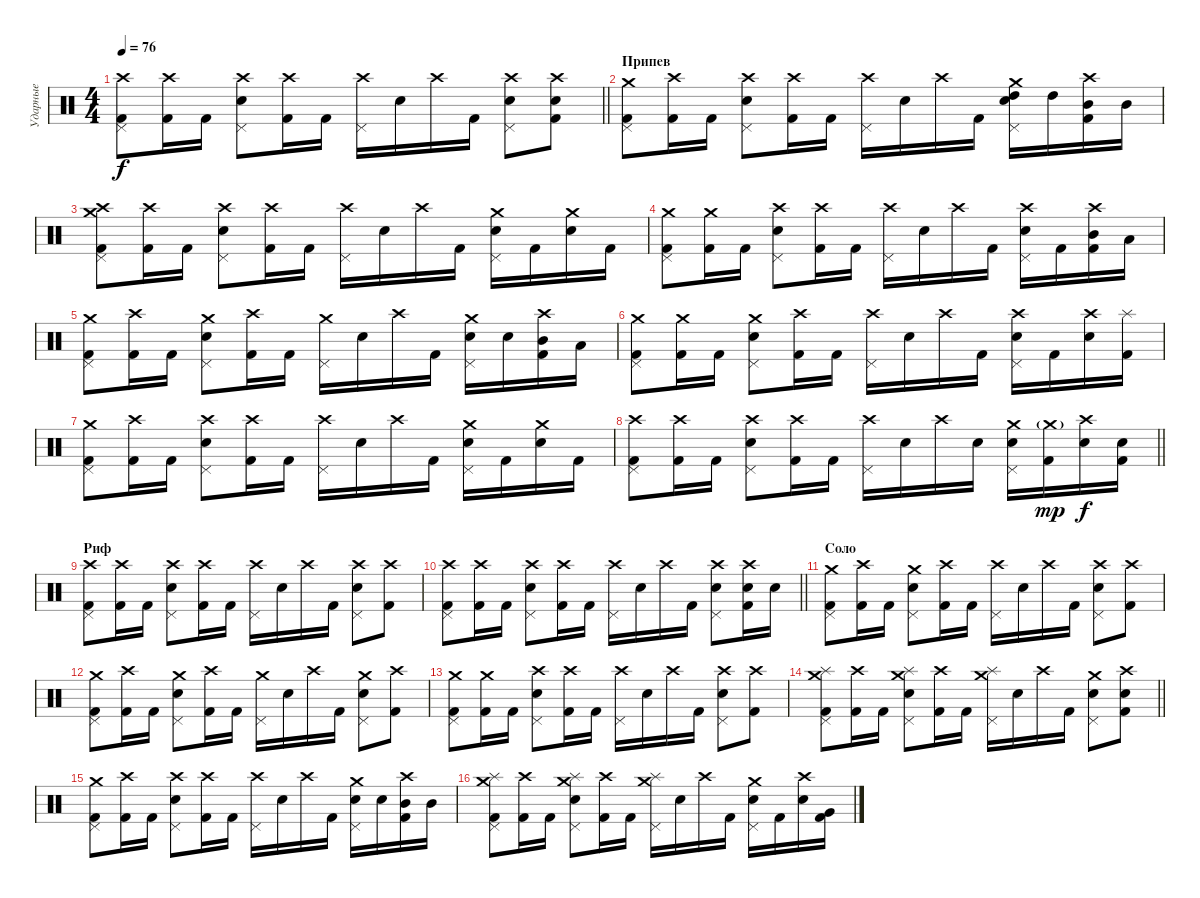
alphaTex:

\track ("Ударные" "Ударные") {instrument percussion}
\staff {score}
\articulation defaults
\ts (4 4)
\tempo 76
\clef neutral
\barLineRight lightlight
\ks c
("Crash high (hit)" "Pedal Hi-Hat (hit)" "Kick (hit) 2").8{dy f} ("Crash high (hit)" "Kick (hit) 2").16 "Kick (hit) 2".16 ("Crash high (hit)" "Pedal Hi-Hat (hit)" "Snare (hit) 2").8 ("Crash high (hit)" "Kick (hit) 2").16 "Kick (hit) 2".16 ("Crash high (hit)" "Pedal Hi-Hat (hit)").16 "Snare (hit) 2".16 "Crash high (hit)".16 "Kick (hit) 2".16 ("Crash high (hit)" "Pedal Hi-Hat (hit)" "Snare (hit) 2").8 ("Crash high (hit)" "Snare (hit) 2" "Kick (hit) 2").8 |
\section ("" "Припев")
("Crash medium (hit)" "Pedal Hi-Hat (hit)" "Kick (hit) 2").8 ("Crash high (hit)" "Kick (hit) 2").16 "Kick (hit) 2".16 ("Crash high (hit)" "Pedal Hi-Hat (hit)" "Snare (hit) 2").8 ("Crash high (hit)" "Kick (hit) 2").16 "Kick (hit) 2".16 ("Crash high (hit)" "Pedal Hi-Hat (hit)").16 "Snare (hit) 2".16 "Crash high (hit)".16 "Kick (hit) 2".16 ("High Tom (hit)" "Pedal Hi-Hat (hit)" "Crash medium (hit)" "Snare (hit) 2").16 "High Tom (hit)".16 ("Mid Tom (hit)" "Crash high (hit)" "Kick (hit) 2").16 "Mid Tom (hit)".16 |
("Crash high (hit)" "Pedal Hi-Hat (hit)" "Crash medium (hit)" "Kick (hit) 2").8 ("Crash high (hit)" "Kick (hit) 2").16 "Kick (hit) 2".16 ("Crash high (hit)" "Pedal Hi-Hat (hit)" "Snare (hit) 2").8 ("Crash high (hit)" "Kick (hit) 2").16 "Kick (hit) 2".16 ("Crash high (hit)" "Pedal Hi-Hat (hit)").16 "Snare (hit) 2".16 "Crash high (hit)".16 "Kick (hit) 2".16 ("Crash medium (hit)" "Pedal Hi-Hat (hit)" "Snare (hit) 2").16 "Kick (hit) 2".16 ("Crash medium (hit)" "Snare (hit) 2").16 "Kick (hit) 2".16 |
("Crash medium (hit)" "Pedal Hi-Hat (hit)" "Kick (hit) 2").8 ("Crash medium (hit)" "Kick (hit) 2").16 "Kick (hit) 2".16 ("Crash high (hit)" "Pedal Hi-Hat (hit)" "Snare (hit) 2").8 ("Crash high (hit)" "Kick (hit) 2").16 "Kick (hit) 2".16 ("Crash high (hit)" "Pedal Hi-Hat (hit)").16 "Snare (hit) 2".16 "Crash high (hit)".16 "Kick (hit) 2".16 ("Crash high (hit)" "Pedal Hi-Hat (hit)" "Snare (hit) 2").16 "Kick (hit) 2".16 ("Mid Tom (hit)" "Crash high (hit)" "Kick (hit) 2").16 "Low Tom (hit)".16 |
("Crash medium (hit)" "Pedal Hi-Hat (hit)" "Kick (hit) 2").8 ("Crash high (hit)" "Kick (hit) 2").16 "Kick (hit) 2".16 ("Crash medium (hit)" "Pedal Hi-Hat (hit)" "Snare (hit) 2").8 ("Crash high (hit)" "Kick (hit) 2").16 "Kick (hit) 2".16 ("Crash medium (hit)" "Pedal Hi-Hat (hit)").16 "Snare (hit) 2".16 "Crash high (hit)".16 "Kick (hit) 2".16 ("Crash medium (hit)" "Pedal Hi-Hat (hit)" "Snare (hit) 2").16 "Snare (hit) 2".16 ("Mid Tom (hit)" "Crash high (hit)" "Kick (hit) 2").16 "Low Tom (hit)".16 |
("Crash medium (hit)" "Pedal Hi-Hat (hit)" "Kick (hit) 2").8 ("Crash medium (hit)" "Kick (hit) 2").16 "Kick (hit) 2".16 ("Crash medium (hit)" "Pedal Hi-Hat (hit)" "Snare (hit) 2").8 ("Crash high (hit)" "Kick (hit) 2").16 "Kick (hit) 2".16 ("Crash high (hit)" "Pedal Hi-Hat (hit)").16 "Snare (hit) 2".16 "Crash high (hit)".16 "Kick (hit) 2".16 ("Crash high (hit)" "Pedal Hi-Hat (hit)" "Snare (hit) 2").16 "Kick (hit) 2".16 ("Crash high (hit)" "Snare (hit) 2").16 ("Splash (hit)" "Kick (hit) 2").16 |
("Crash medium (hit)" "Pedal Hi-Hat (hit)" "Kick (hit) 2").8 ("Crash high (hit)" "Kick (hit) 2").16 "Kick (hit) 2".16 ("Crash high (hit)" "Pedal Hi-Hat (hit)" "Snare (hit) 2").8 ("Crash high (hit)" "Kick (hit) 2").16 "Kick (hit) 2".16 ("Crash high (hit)" "Pedal Hi-Hat (hit)").16 "Snare (hit) 2".16 "Crash high (hit)".16 "Kick (hit) 2".16 ("Crash medium (hit)" "Pedal Hi-Hat (hit)" "Snare (hit) 2").16 "Kick (hit) 2".16 ("Crash medium (hit)" "Snare (hit) 2").16 "Kick (hit) 2".16 |
\barLineRight lightlight
("Crash high (hit)" "Pedal Hi-Hat (hit)" "Kick (hit) 2").8 ("Crash high (hit)" "Kick (hit) 2").16 "Kick (hit) 2".16 ("Crash high (hit)" "Pedal Hi-Hat (hit)" "Snare (hit) 2").8 ("Crash high (hit)" "Kick (hit) 2").16 "Kick (hit) 2".16 ("Crash high (hit)" "Pedal Hi-Hat (hit)").16 "Snare (hit) 2".16 "Crash high (hit)".16 "Snare (hit) 2".16 ("Crash medium (hit)" "Pedal Hi-Hat (hit)" "Snare (hit) 2").16 ("Crash medium (hit)"{g} "Kick (hit) 2").16{dy mp} ("Crash high (hit)" "Snare (hit) 2").16{dy f} ("Snare (hit) 2" "Kick (hit) 2").16 |
\section ("" "Риф")
("Crash high (hit)" "Pedal Hi-Hat (hit)" "Kick (hit) 2").8 ("Crash high (hit)" "Kick (hit) 2").16 "Kick (hit) 2".16 ("Crash high (hit)" "Pedal Hi-Hat (hit)" "Snare (hit) 2").8 ("Crash high (hit)" "Kick (hit) 2").16 "Kick (hit) 2".16 ("Crash high (hit)" "Pedal Hi-Hat (hit)").16 "Snare (hit) 2".16 "Crash high (hit)".16 "Kick (hit) 2".16 ("Crash high (hit)" "Pedal Hi-Hat (hit)" "Snare (hit) 2").8 ("Crash high (hit)" "Kick (hit) 2").8 |
\barLineRight lightlight
("Crash high (hit)" "Pedal Hi-Hat (hit)" "Kick (hit) 2").8 ("Crash high (hit)" "Kick (hit) 2").16 "Kick (hit) 2".16 ("Crash high (hit)" "Pedal Hi-Hat (hit)" "Snare (hit) 2").8 ("Crash high (hit)" "Kick (hit) 2").16 "Kick (hit) 2".16 ("Crash high (hit)" "Pedal Hi-Hat (hit)").16 "Snare (hit) 2".16 "Crash high (hit)".16 "Kick (hit) 2".16 ("Crash high (hit)" "Pedal Hi-Hat (hit)" "Snare (hit) 2").8 ("Crash high (hit)" "Snare (hit) 2" "Kick (hit) 2").16 "Snare (hit) 2".16 |
\section ("" "Соло")
("Crash medium (hit)" "Pedal Hi-Hat (hit)" "Kick (hit) 2").8 ("Crash high (hit)" "Kick (hit) 2").16 "Kick (hit) 2".16 ("Crash medium (hit)" "Pedal Hi-Hat (hit)" "Snare (hit) 2").8 ("Crash high (hit)" "Kick (hit) 2").16 "Kick (hit) 2".16 ("Crash high (hit)" "Pedal Hi-Hat (hit)").16 "Snare (hit) 2".16 "Crash high (hit)".16 "Kick (hit) 2".16 ("Crash high (hit)" "Pedal Hi-Hat (hit)" "Snare (hit) 2").8 ("Crash high (hit)" "Kick (hit) 2").8 |
("Crash medium (hit)" "Pedal Hi-Hat (hit)" "Kick (hit) 2").8 ("Crash high (hit)" "Kick (hit) 2").16 "Kick (hit) 2".16 ("Crash medium (hit)" "Pedal Hi-Hat (hit)" "Snare (hit) 2").8 ("Crash high (hit)" "Kick (hit) 2").16 "Kick (hit) 2".16 ("Crash medium (hit)" "Pedal Hi-Hat (hit)").16 "Snare (hit) 2".16 "Crash high (hit)".16 "Kick (hit) 2".16 ("Crash medium (hit)" "Pedal Hi-Hat (hit)" "Snare (hit) 2").8 ("Crash high (hit)" "Kick (hit) 2").8 |
("Crash medium (hit)" "Pedal Hi-Hat (hit)" "Kick (hit) 2").8 ("Crash medium (hit)" "Kick (hit) 2").16 "Kick (hit) 2".16 ("Crash high (hit)" "Pedal Hi-Hat (hit)" "Snare (hit) 2").8 ("Crash high (hit)" "Kick (hit) 2").16 "Kick (hit) 2".16 ("Crash high (hit)" "Pedal Hi-Hat (hit)").16 "Snare (hit) 2".16 "Crash high (hit)".16 "Kick (hit) 2".16 ("Crash high (hit)" "Pedal Hi-Hat (hit)" "Snare (hit) 2").8 ("Crash high (hit)" "Kick (hit) 2").8 |
\barLineRight lightlight
("Crash medium (hit)" "Pedal Hi-Hat (hit)" "Splash (hit)" "Kick (hit) 2").8 ("Crash high (hit)" "Kick (hit) 2").16 "Kick (hit) 2".16 ("Crash medium (hit)" "Pedal Hi-Hat (hit)" "Splash (hit)" "Snare (hit) 2").8 ("Crash high (hit)" "Kick (hit) 2").16 "Kick (hit) 2".16 ("Crash medium (hit)" "Pedal Hi-Hat (hit)" "Splash (hit)").16 "Snare (hit) 2".16 "Crash high (hit)".16 "Kick (hit) 2".16 ("Crash medium (hit)" "Pedal Hi-Hat (hit)" "Snare (hit) 2").8 ("Crash high (hit)" "Snare (hit) 2" "Kick (hit) 2").8 |
("Crash medium (hit)" "Pedal Hi-Hat (hit)" "Kick (hit) 2").8 ("Crash high (hit)" "Kick (hit) 2").16 "Kick (hit) 2".16 ("Crash high (hit)" "Pedal Hi-Hat (hit)" "Snare (hit) 2").8 ("Crash high (hit)" "Kick (hit) 2").16 "Kick (hit) 2".16 ("Crash high (hit)" "Pedal Hi-Hat (hit)").16 "Snare (hit) 2".16 "Crash high (hit)".16 "Kick (hit) 2".16 ("Pedal Hi-Hat (hit)" "Crash medium (hit)" "Snare (hit) 2").16 "Snare (hit) 2".16 ("Mid Tom (hit)" "Crash high (hit)" "Kick (hit) 2").16 "Mid Tom (hit)".16 |
("Crash medium (hit)" "Pedal Hi-Hat (hit)" "Splash (hit)" "Kick (hit) 2").8 ("Crash high (hit)" "Kick (hit) 2").16 "Kick (hit) 2".16 ("Crash medium (hit)" "Pedal Hi-Hat (hit)" "Splash (hit)" "Snare (hit) 2").8 ("Crash high (hit)" "Kick (hit) 2").16 "Kick (hit) 2".16 ("Crash medium (hit)" "Pedal Hi-Hat (hit)" "Splash (hit)").16 "Snare (hit) 2".16 "Crash high (hit)".16 "Kick (hit) 2".16 ("Crash medium (hit)" "Pedal Hi-Hat (hit)" "Snare (hit) 2").16 "Kick (hit) 2".16 ("Crash high (hit)" "Snare (hit) 2").16 ("Very Low Tom (hit)" "Kick (hit) 2").16
